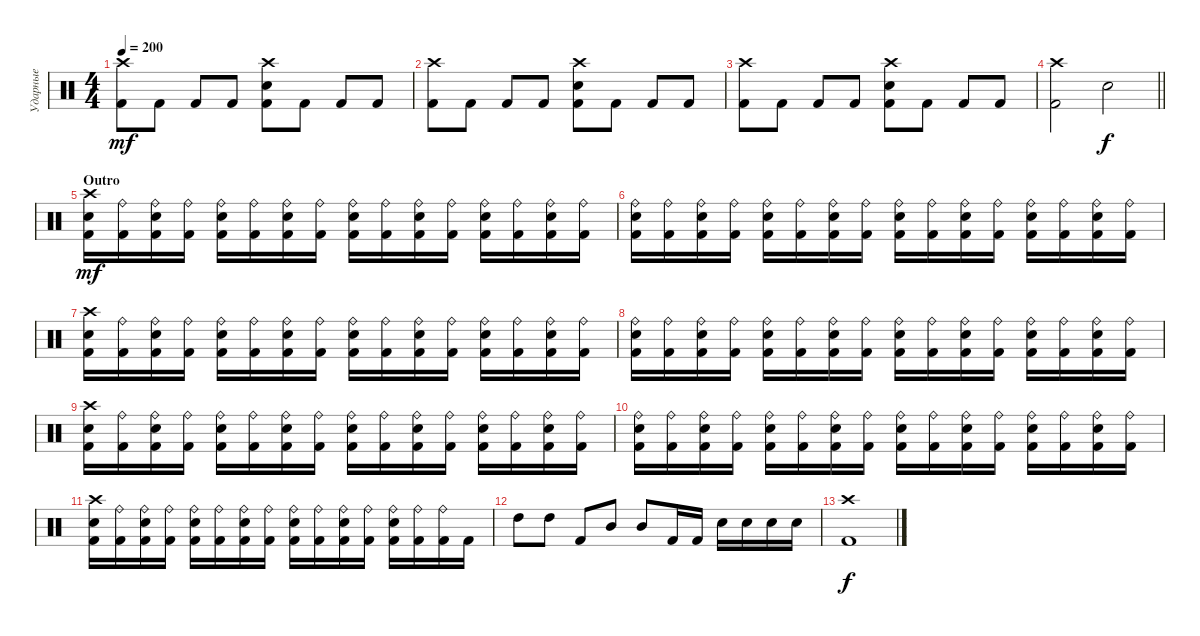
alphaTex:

\track ("Ударные" "Ударные") {instrument percussion}
\staff {score}
\articulation defaults
\ts (4 4)
\tempo 200
\clef neutral
\ks c
("Crash high (hit)" "Kick (hit) 2").8{dy mf} "Kick (hit) 2".8 "Kick (hit) 2".8 "Kick (hit) 2".8 ("Crash high (hit)" "Snare (hit) 2" "Kick (hit) 2").8 "Kick (hit) 2".8 "Kick (hit) 2".8 "Kick (hit) 2".8 |
("Crash high (hit)" "Kick (hit) 2").8 "Kick (hit) 2".8 "Kick (hit) 2".8 "Kick (hit) 2".8 ("Crash high (hit)" "Snare (hit) 2" "Kick (hit) 2").8 "Kick (hit) 2".8 "Kick (hit) 2".8 "Kick (hit) 2".8 |
("Crash high (hit)" "Kick (hit) 2").8 "Kick (hit) 2".8 "Kick (hit) 2".8 "Kick (hit) 2".8 ("Crash high (hit)" "Snare (hit) 2" "Kick (hit) 2").8 "Kick (hit) 2".8 "Kick (hit) 2".8 "Kick (hit) 2".8 |
\barLineRight lightlight
("Crash high (hit)" "Kick (hit) 2").2 "Snare (hit) 2".2{dy f} |
\section ("" "Outro")
("Crash high (hit)" "Snare (hit) 2" "Kick (hit) 2").16{dy mf} ("Ride (bell)" "Kick (hit) 2").16 ("Ride (bell)" "Snare (hit) 2" "Kick (hit) 2").16 ("Ride (bell)" "Kick (hit) 2").16 ("Ride (bell)" "Snare (hit) 2" "Kick (hit) 2").16 ("Ride (bell)" "Kick (hit) 2").16 ("Ride (bell)" "Snare (hit) 2" "Kick (hit) 2").16 ("Ride (bell)" "Kick (hit) 2").16 ("Ride (bell)" "Snare (hit) 2" "Kick (hit) 2").16 ("Ride (bell)" "Kick (hit) 2").16 ("Ride (bell)" "Snare (hit) 2" "Kick (hit) 2").16 ("Ride (bell)" "Kick (hit) 2").16 ("Ride (bell)" "Snare (hit) 2" "Kick (hit) 2").16 ("Ride (bell)" "Kick (hit) 2").16 ("Ride (bell)" "Snare (hit) 2" "Kick (hit) 2").16 ("Ride (bell)" "Kick (hit) 2").16 |
("Ride (bell)" "Snare (hit) 2" "Kick (hit) 2").16 ("Ride (bell)" "Kick (hit) 2").16 ("Ride (bell)" "Snare (hit) 2" "Kick (hit) 2").16 ("Ride (bell)" "Kick (hit) 2").16 ("Ride (bell)" "Snare (hit) 2" "Kick (hit) 2").16 ("Ride (bell)" "Kick (hit) 2").16 ("Ride (bell)" "Snare (hit) 2" "Kick (hit) 2").16 ("Ride (bell)" "Kick (hit) 2").16 ("Ride (bell)" "Snare (hit) 2" "Kick (hit) 2").16 ("Ride (bell)" "Kick (hit) 2").16 ("Ride (bell)" "Snare (hit) 2" "Kick (hit) 2").16 ("Ride (bell)" "Kick (hit) 2").16 ("Ride (bell)" "Snare (hit) 2" "Kick (hit) 2").16 ("Ride (bell)" "Kick (hit) 2").16 ("Ride (bell)" "Snare (hit) 2" "Kick (hit) 2").16 ("Ride (bell)" "Kick (hit) 2").16 |
("Crash high (hit)" "Snare (hit) 2" "Kick (hit) 2").16 ("Ride (bell)" "Kick (hit) 2").16 ("Ride (bell)" "Snare (hit) 2" "Kick (hit) 2").16 ("Ride (bell)" "Kick (hit) 2").16 ("Ride (bell)" "Snare (hit) 2" "Kick (hit) 2").16 ("Ride (bell)" "Kick (hit) 2").16 ("Ride (bell)" "Snare (hit) 2" "Kick (hit) 2").16 ("Ride (bell)" "Kick (hit) 2").16 ("Ride (bell)" "Snare (hit) 2" "Kick (hit) 2").16 ("Ride (bell)" "Kick (hit) 2").16 ("Ride (bell)" "Snare (hit) 2" "Kick (hit) 2").16 ("Ride (bell)" "Kick (hit) 2").16 ("Ride (bell)" "Snare (hit) 2" "Kick (hit) 2").16 ("Ride (bell)" "Kick (hit) 2").16 ("Ride (bell)" "Snare (hit) 2" "Kick (hit) 2").16 ("Ride (bell)" "Kick (hit) 2").16 |
("Ride (bell)" "Snare (hit) 2" "Kick (hit) 2").16 ("Ride (bell)" "Kick (hit) 2").16 ("Ride (bell)" "Snare (hit) 2" "Kick (hit) 2").16 ("Ride (bell)" "Kick (hit) 2").16 ("Ride (bell)" "Snare (hit) 2" "Kick (hit) 2").16 ("Ride (bell)" "Kick (hit) 2").16 ("Ride (bell)" "Snare (hit) 2" "Kick (hit) 2").16 ("Ride (bell)" "Kick (hit) 2").16 ("Ride (bell)" "Snare (hit) 2" "Kick (hit) 2").16 ("Ride (bell)" "Kick (hit) 2").16 ("Ride (bell)" "Snare (hit) 2" "Kick (hit) 2").16 ("Ride (bell)" "Kick (hit) 2").16 ("Ride (bell)" "Snare (hit) 2" "Kick (hit) 2").16 ("Ride (bell)" "Kick (hit) 2").16 ("Ride (bell)" "Snare (hit) 2" "Kick (hit) 2").16 ("Ride (bell)" "Kick (hit) 2").16 |
("Crash high (hit)" "Snare (hit) 2" "Kick (hit) 2").16 ("Ride (bell)" "Kick (hit) 2").16 ("Ride (bell)" "Snare (hit) 2" "Kick (hit) 2").16 ("Ride (bell)" "Kick (hit) 2").16 ("Ride (bell)" "Snare (hit) 2" "Kick (hit) 2").16 ("Ride (bell)" "Kick (hit) 2").16 ("Ride (bell)" "Snare (hit) 2" "Kick (hit) 2").16 ("Ride (bell)" "Kick (hit) 2").16 ("Ride (bell)" "Snare (hit) 2" "Kick (hit) 2").16 ("Ride (bell)" "Kick (hit) 2").16 ("Ride (bell)" "Snare (hit) 2" "Kick (hit) 2").16 ("Ride (bell)" "Kick (hit) 2").16 ("Ride (bell)" "Snare (hit) 2" "Kick (hit) 2").16 ("Ride (bell)" "Kick (hit) 2").16 ("Ride (bell)" "Snare (hit) 2" "Kick (hit) 2").16 ("Ride (bell)" "Kick (hit) 2").16 |
("Ride (bell)" "Snare (hit) 2" "Kick (hit) 2").16 ("Ride (bell)" "Kick (hit) 2").16 ("Ride (bell)" "Snare (hit) 2" "Kick (hit) 2").16 ("Ride (bell)" "Kick (hit) 2").16 ("Ride (bell)" "Snare (hit) 2" "Kick (hit) 2").16 ("Ride (bell)" "Kick (hit) 2").16 ("Ride (bell)" "Snare (hit) 2" "Kick (hit) 2").16 ("Ride (bell)" "Kick (hit) 2").16 ("Ride (bell)" "Snare (hit) 2" "Kick (hit) 2").16 ("Ride (bell)" "Kick (hit) 2").16 ("Ride (bell)" "Snare (hit) 2" "Kick (hit) 2").16 ("Ride (bell)" "Kick (hit) 2").16 ("Ride (bell)" "Snare (hit) 2" "Kick (hit) 2").16 ("Ride (bell)" "Kick (hit) 2").16 ("Ride (bell)" "Snare (hit) 2" "Kick (hit) 2").16 ("Ride (bell)" "Kick (hit) 2").16 |
("Crash high (hit)" "Snare (hit) 2" "Kick (hit) 2").16 ("Ride (bell)" "Kick (hit) 2").16 ("Ride (bell)" "Snare (hit) 2" "Kick (hit) 2").16 ("Ride (bell)" "Kick (hit) 2").16 ("Ride (bell)" "Snare (hit) 2" "Kick (hit) 2").16 ("Ride (bell)" "Kick (hit) 2").16 ("Ride (bell)" "Snare (hit) 2" "Kick (hit) 2").16 ("Ride (bell)" "Kick (hit) 2").16 ("Ride (bell)" "Snare (hit) 2" "Kick (hit) 2").16 ("Ride (bell)" "Kick (hit) 2").16 ("Ride (bell)" "Snare (hit) 2" "Kick (hit) 2").16 ("Ride (bell)" "Kick (hit) 2").16 ("Ride (bell)" "Snare (hit) 2" "Kick (hit) 2").16 ("Ride (bell)" "Kick (hit) 2").16 ("Ride (bell)" "Kick (hit) 2").16 "Kick (hit) 2".16 |
"High Tom (hit)".8 "High Tom (hit)".8 "Kick (hit) 2".8 "Mid Tom (hit)".8 "Mid Tom (hit)".8 "Kick (hit) 2".16 "Kick (hit) 2".16 "Snare (hit) 2".16 "Snare (hit) 2".16 "Snare (hit) 2".16 "Snare (hit) 2".16 |
("Crash high (hit)" "Kick (hit) 2").1{dy f}
